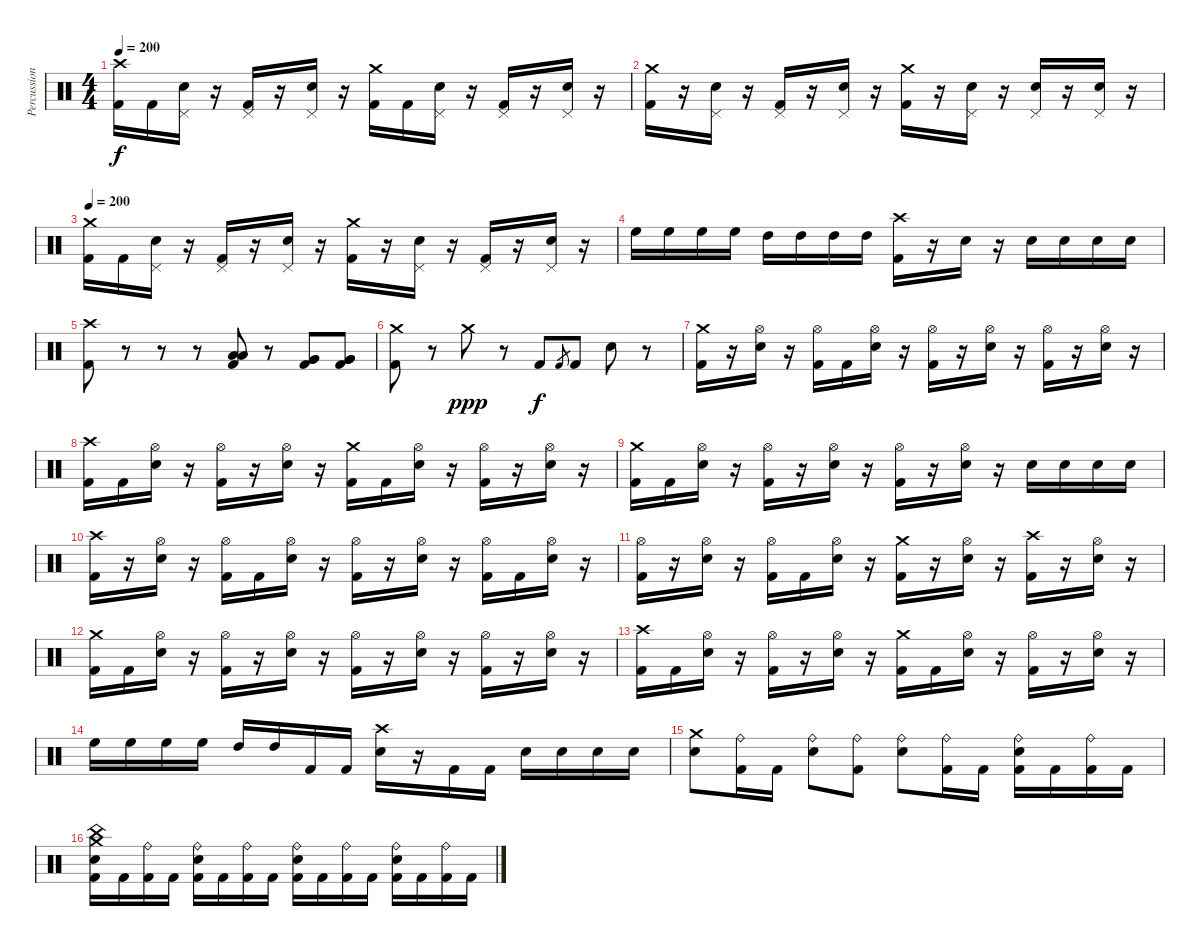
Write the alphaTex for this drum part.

\track ("Percussion" "Percussion") {instrument percussion}
\staff {score}
\articulation defaults
\ts (4 4)
\tempo 200
\clef neutral
\ks c
("Crash high (hit)" "Kick (hit) 2").16{dy f} "Kick (hit) 2".16 ("Pedal Hi-Hat (hit)" "Snare (hit) 2").16 r.16 ("Pedal Hi-Hat (hit)" "Kick (hit) 2").16 r.16 ("Pedal Hi-Hat (hit)" "Snare (hit) 2").16 r.16 ("Crash medium (hit)" "Kick (hit) 2").16 "Kick (hit) 2".16 ("Pedal Hi-Hat (hit)" "Snare (hit) 2").16 r.16 ("Pedal Hi-Hat (hit)" "Kick (hit) 2").16 r.16 ("Pedal Hi-Hat (hit)" "Snare (hit) 2").16 r.16 |
("Crash medium (hit)" "Kick (hit) 2").16 r.16 ("Pedal Hi-Hat (hit)" "Snare (hit) 2").16 r.16 ("Pedal Hi-Hat (hit)" "Kick (hit) 2").16 r.16 ("Pedal Hi-Hat (hit)" "Snare (hit) 2").16 r.16 ("Crash medium (hit)" "Kick (hit) 2").16 r.16 ("Pedal Hi-Hat (hit)" "Snare (hit) 2").16 r.16 ("Pedal Hi-Hat (hit)" "Snare (hit) 2").16 r.16 ("Pedal Hi-Hat (hit)" "Snare (hit) 2").16 r.16 |
\tempo 200
("Crash medium (hit)" "Kick (hit) 2").16 "Kick (hit) 2".16 ("Pedal Hi-Hat (hit)" "Snare (hit) 2").16 r.16 ("Pedal Hi-Hat (hit)" "Kick (hit) 2").16 r.16 ("Pedal Hi-Hat (hit)" "Snare (hit) 2").16 r.16 ("Crash medium (hit)" "Kick (hit) 2").16 r.16 ("Pedal Hi-Hat (hit)" "Snare (hit) 2").16 r.16 ("Pedal Hi-Hat (hit)" "Kick (hit) 2").16 r.16 ("Pedal Hi-Hat (hit)" "Snare (hit) 2").16 r.16 |
"High Floor Tom (hit)".16 "High Floor Tom (hit)".16 "High Floor Tom (hit)".16 "High Floor Tom (hit)".16 "High Tom (hit)".16 "High Tom (hit)".16 "High Tom (hit)".16 "High Tom (hit)".16 ("Crash high (hit)" "Kick (hit) 2").16 r.16 "Snare (hit) 2".16 r.16 "Snare (hit) 2".16 "Snare (hit) 2".16 "Snare (hit) 2".16 "Snare (hit) 2".16 |
("Crash high (hit)" "Kick (hit) 2").8 r.8 r.8 r.8 ("Low Tom (hit)" "Low Tom (hit)" "Kick (hit) 2").8 r.8 ("Very Low Tom (hit)" "Very Low Tom (hit)" "Kick (hit) 2").8 ("Very Low Tom (hit)" "Very Low Tom (hit)" "Kick (hit) 2").8 |
("Crash medium (hit)" "Kick (hit) 2").8 r.8 "Crash medium (hit)".8{dy ppp} r.8 "Kick (hit) 2".8{dy f} "Kick (hit) 2".8{gr} "Kick (hit) 2".8 "Snare (hit) 2".8 r.8 |
("Crash medium (hit)" "Kick (hit) 2").16 r.16 ("Hi-Hat (open)" "Snare (hit) 2").16 r.16 ("Hi-Hat (open)" "Kick (hit) 2").16 "Kick (hit) 2".16 ("Hi-Hat (open)" "Snare (hit) 2").16 r.16 ("Hi-Hat (open)" "Kick (hit) 2").16 r.16 ("Hi-Hat (open)" "Snare (hit) 2").16 r.16 ("Hi-Hat (open)" "Kick (hit) 2").16 r.16 ("Hi-Hat (open)" "Snare (hit) 2").16 r.16 |
("Crash high (hit)" "Kick (hit) 2").16 "Kick (hit) 2".16 ("Hi-Hat (open)" "Snare (hit) 2").16 r.16 ("Hi-Hat (open)" "Kick (hit) 2").16 r.16 ("Hi-Hat (open)" "Snare (hit) 2").16 r.16 ("Crash medium (hit)" "Kick (hit) 2").16 "Kick (hit) 2".16 ("Hi-Hat (open)" "Snare (hit) 2").16 r.16 ("Hi-Hat (open)" "Kick (hit) 2").16 r.16 ("Hi-Hat (open)" "Snare (hit) 2").16 r.16 |
("Crash medium (hit)" "Kick (hit) 2").16 "Kick (hit) 2".16 ("Hi-Hat (open)" "Snare (hit) 2").16 r.16 ("Hi-Hat (open)" "Kick (hit) 2").16 r.16 ("Hi-Hat (open)" "Snare (hit) 2").16 r.16 ("Hi-Hat (open)" "Kick (hit) 2").16 r.16 ("Hi-Hat (open)" "Snare (hit) 2").16 r.16 "Snare (hit) 2".16 "Snare (hit) 2".16 "Snare (hit) 2".16 "Snare (hit) 2".16 |
("Crash high (hit)" "Kick (hit) 2").16 r.16 ("Hi-Hat (open)" "Snare (hit) 2").16 r.16 ("Hi-Hat (open)" "Kick (hit) 2").16 "Kick (hit) 2".16 ("Hi-Hat (open)" "Snare (hit) 2").16 r.16 ("Hi-Hat (open)" "Kick (hit) 2").16 r.16 ("Hi-Hat (open)" "Snare (hit) 2").16 r.16 ("Hi-Hat (open)" "Kick (hit) 2").16 "Kick (hit) 2".16 ("Hi-Hat (open)" "Snare (hit) 2").16 r.16 |
("Hi-Hat (open)" "Kick (hit) 2").16 r.16 ("Hi-Hat (open)" "Snare (hit) 2").16 r.16 ("Hi-Hat (open)" "Kick (hit) 2").16 "Kick (hit) 2".16 ("Hi-Hat (open)" "Snare (hit) 2").16 r.16 ("Crash medium (hit)" "Kick (hit) 2").16 r.16 ("Hi-Hat (open)" "Snare (hit) 2").16 r.16 ("Crash high (hit)" "Kick (hit) 2").16 r.16 ("Hi-Hat (open)" "Snare (hit) 2").16 r.16 |
("Crash medium (hit)" "Kick (hit) 2").16 "Kick (hit) 2".16 ("Hi-Hat (open)" "Snare (hit) 2").16 r.16 ("Hi-Hat (open)" "Kick (hit) 2").16 r.16 ("Hi-Hat (open)" "Snare (hit) 2").16 r.16 ("Hi-Hat (open)" "Kick (hit) 2").16 r.16 ("Hi-Hat (open)" "Snare (hit) 2").16 r.16 ("Hi-Hat (open)" "Kick (hit) 2").16 r.16 ("Hi-Hat (open)" "Snare (hit) 2").16 r.16 |
("Crash high (hit)" "Kick (hit) 2").16 "Kick (hit) 2".16 ("Hi-Hat (open)" "Snare (hit) 2").16 r.16 ("Hi-Hat (open)" "Kick (hit) 2").16 r.16 ("Hi-Hat (open)" "Snare (hit) 2").16 r.16 ("Crash medium (hit)" "Kick (hit) 2").16 "Kick (hit) 2".16 ("Hi-Hat (open)" "Snare (hit) 2").16 r.16 ("Hi-Hat (open)" "Kick (hit) 2").16 r.16 ("Hi-Hat (open)" "Snare (hit) 2").16 r.16 |
"High Floor Tom (hit)".16 "High Floor Tom (hit)".16 "High Floor Tom (hit)".16 "High Floor Tom (hit)".16 "High Tom (hit)".16 "High Tom (hit)".16 "Kick (hit) 2".16 "Kick (hit) 2".16 ("Crash high (hit)" "Snare (hit) 2").16 r.16 "Kick (hit) 2".16 "Kick (hit) 2".16 "Snare (hit) 2".16 "Snare (hit) 2".16 "Snare (hit) 2".16 "Snare (hit) 2".16 |
("Crash medium (hit)" "Snare (hit) 2").8 ("Ride (bell)" "Kick (hit) 2").16 "Kick (hit) 2".16 ("Ride (bell)" "Snare (hit) 2").8 ("Ride (bell)" "Kick (hit) 2").8 ("Ride (bell)" "Snare (hit) 2").8 ("Ride (bell)" "Kick (hit) 2").16 "Kick (hit) 2".16 ("Ride (bell)" "Snare (hit) 2" "Kick (hit) 2").16 "Kick (hit) 2".16 ("Ride (bell)" "Kick (hit) 2").16 "Kick (hit) 2".16 |
("China (hit)" "Crash medium (hit)" "Snare (hit) 2" "Kick (hit) 2").16 "Kick (hit) 2".16 ("Ride (bell)" "Kick (hit) 2").16 "Kick (hit) 2".16 ("Ride (bell)" "Snare (hit) 2" "Kick (hit) 2").16 "Kick (hit) 2".16 ("Ride (bell)" "Kick (hit) 2").16 "Kick (hit) 2".16 ("Ride (bell)" "Snare (hit) 2" "Kick (hit) 2").16 "Kick (hit) 2".16 ("Ride (bell)" "Kick (hit) 2").16 "Kick (hit) 2".16 ("Ride (bell)" "Snare (hit) 2" "Kick (hit) 2").16 "Kick (hit) 2".16 ("Ride (bell)" "Kick (hit) 2").16 "Kick (hit) 2".16
